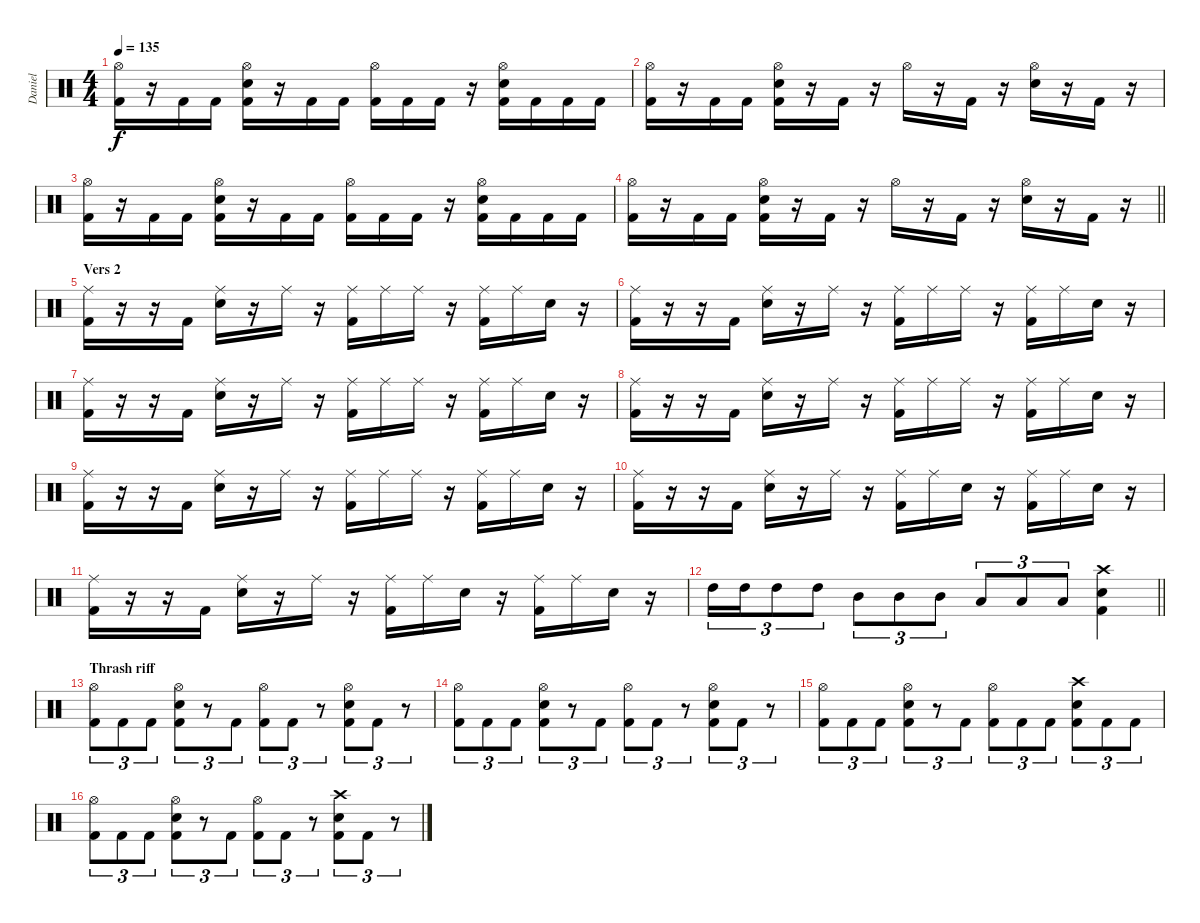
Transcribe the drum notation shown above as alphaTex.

\track ("Daniel" "Daniel") {instrument percussion}
\staff {score}
\articulation defaults
\ts (4 4)
\tempo 135
\clef neutral
\ks c
("Hi-Hat (open)" "Kick (hit) 2").16{dy f} r.16 "Kick (hit) 2".16 "Kick (hit) 2".16 ("Hi-Hat (open)" "Electric Snare (hit)" "Kick (hit) 2").16 r.16 "Kick (hit) 2".16 "Kick (hit) 2".16 ("Hi-Hat (open)" "Kick (hit) 2").16 "Kick (hit) 2".16 "Kick (hit) 2".16 r.16 ("Hi-Hat (open)" "Electric Snare (hit)" "Kick (hit) 2").16 "Kick (hit) 2".16 "Kick (hit) 2".16 "Kick (hit) 2".16 |
("Hi-Hat (open)" "Kick (hit) 2").16 r.16 "Kick (hit) 2".16 "Kick (hit) 2".16 ("Hi-Hat (open)" "Electric Snare (hit)" "Kick (hit) 2").16 r.16 "Kick (hit) 2".16 r.16 "Hi-Hat (open)".16 r.16 "Kick (hit) 2".16 r.16 ("Hi-Hat (open)" "Electric Snare (hit)").16 r.16 "Kick (hit) 2".16 r.16 |
("Hi-Hat (open)" "Kick (hit) 2").16 r.16 "Kick (hit) 2".16 "Kick (hit) 2".16 ("Hi-Hat (open)" "Electric Snare (hit)" "Kick (hit) 2").16 r.16 "Kick (hit) 2".16 "Kick (hit) 2".16 ("Hi-Hat (open)" "Kick (hit) 2").16 "Kick (hit) 2".16 "Kick (hit) 2".16 r.16 ("Hi-Hat (open)" "Electric Snare (hit)" "Kick (hit) 2").16 "Kick (hit) 2".16 "Kick (hit) 2".16 "Kick (hit) 2".16 |
\barLineRight lightlight
("Hi-Hat (open)" "Kick (hit) 2").16 r.16 "Kick (hit) 2".16 "Kick (hit) 2".16 ("Hi-Hat (open)" "Electric Snare (hit)" "Kick (hit) 2").16 r.16 "Kick (hit) 2".16 r.16 "Hi-Hat (open)".16 r.16 "Kick (hit) 2".16 r.16 ("Hi-Hat (open)" "Electric Snare (hit)").16 r.16 "Kick (hit) 2".16 r.16 |
\section ("" "Vers 2")
("Ride (middle)" "Kick (hit) 2").16 r.16 r.16 "Kick (hit) 2".16 ("Ride (middle)" "Electric Snare (hit)").16 r.16 "Ride (middle)".16 r.16 ("Ride (middle)" "Kick (hit) 2").16 "Ride (middle)".16 "Ride (middle)".16 r.16 ("Ride (middle)" "Kick (hit) 2").16 "Ride (middle)".16 "Electric Snare (hit)".16 r.16 |
("Ride (middle)" "Kick (hit) 2").16 r.16 r.16 "Kick (hit) 2".16 ("Ride (middle)" "Electric Snare (hit)").16 r.16 "Ride (middle)".16 r.16 ("Ride (middle)" "Kick (hit) 2").16 "Ride (middle)".16 "Ride (middle)".16 r.16 ("Ride (middle)" "Kick (hit) 2").16 "Ride (middle)".16 "Electric Snare (hit)".16 r.16 |
("Ride (middle)" "Kick (hit) 2").16 r.16 r.16 "Kick (hit) 2".16 ("Ride (middle)" "Electric Snare (hit)").16 r.16 "Ride (middle)".16 r.16 ("Ride (middle)" "Kick (hit) 2").16 "Ride (middle)".16 "Ride (middle)".16 r.16 ("Ride (middle)" "Kick (hit) 2").16 "Ride (middle)".16 "Electric Snare (hit)".16 r.16 |
("Ride (middle)" "Kick (hit) 2").16 r.16 r.16 "Kick (hit) 2".16 ("Ride (middle)" "Electric Snare (hit)").16 r.16 "Ride (middle)".16 r.16 ("Ride (middle)" "Kick (hit) 2").16 "Ride (middle)".16 "Ride (middle)".16 r.16 ("Ride (middle)" "Kick (hit) 2").16 "Ride (middle)".16 "Electric Snare (hit)".16 r.16 |
("Ride (middle)" "Kick (hit) 2").16 r.16 r.16 "Kick (hit) 2".16 ("Ride (middle)" "Electric Snare (hit)").16 r.16 "Ride (middle)".16 r.16 ("Ride (middle)" "Kick (hit) 2").16 "Ride (middle)".16 "Ride (middle)".16 r.16 ("Ride (middle)" "Kick (hit) 2").16 "Ride (middle)".16 "Electric Snare (hit)".16 r.16 |
("Ride (middle)" "Kick (hit) 2").16 r.16 r.16 "Kick (hit) 2".16 ("Ride (middle)" "Electric Snare (hit)").16 r.16 "Ride (middle)".16 r.16 ("Ride (middle)" "Kick (hit) 2").16 "Ride (middle)".16 "Electric Snare (hit)".16 r.16 ("Ride (middle)" "Kick (hit) 2").16 "Ride (middle)".16 "Electric Snare (hit)".16 r.16 |
("Ride (middle)" "Kick (hit) 2").16 r.16 r.16 "Kick (hit) 2".16 ("Ride (middle)" "Electric Snare (hit)").16 r.16 "Ride (middle)".16 r.16 ("Ride (middle)" "Kick (hit) 2").16 "Ride (middle)".16 "Electric Snare (hit)".16 r.16 ("Ride (middle)" "Kick (hit) 2").16 "Ride (middle)".16 "Electric Snare (hit)".16 r.16 |
\barLineRight lightlight "High Tom (hit)".16{tu (3 2)} "High Tom (hit)".16{tu (3 2)} "High Tom (hit)".8{tu (3 2)} "High Tom (hit)".8{tu (3 2)} "Mid Tom (hit)".8{tu (3 2)} "Mid Tom (hit)".8{tu (3 2)} "Mid Tom (hit)".8{tu (3 2)} "Low Tom (hit)".8{tu (3 2)} "Low Tom (hit)".8{tu (3 2)} "Low Tom (hit)".8{tu (3 2)}
("Crash high (hit)" "Electric Snare (hit)" "Kick (hit) 2").4 |
\section ("" "Thrash riff")
("Hi-Hat (open)" "Kick (hit) 2").8{tu (3 2)} "Kick (hit) 2".8{tu (3 2)} "Kick (hit) 2".8{tu (3 2)} ("Hi-Hat (open)" "Electric Snare (hit)" "Kick (hit) 2").8{tu (3 2)} r.8{tu (3 2)} "Kick (hit) 2".8{tu (3 2)} ("Hi-Hat (open)" "Kick (hit) 2").8{tu (3 2)} "Kick (hit) 2".8{tu (3 2)} r.8{tu (3 2)} ("Hi-Hat (open)" "Electric Snare (hit)" "Kick (hit) 2").8{tu (3 2)} "Kick (hit) 2".8{tu (3 2)} r.8{tu (3 2)} |
("Hi-Hat (open)" "Kick (hit) 2").8{tu (3 2)} "Kick (hit) 2".8{tu (3 2)} "Kick (hit) 2".8{tu (3 2)} ("Hi-Hat (open)" "Electric Snare (hit)" "Kick (hit) 2").8{tu (3 2)} r.8{tu (3 2)} "Kick (hit) 2".8{tu (3 2)} ("Hi-Hat (open)" "Kick (hit) 2").8{tu (3 2)} "Kick (hit) 2".8{tu (3 2)} r.8{tu (3 2)} ("Hi-Hat (open)" "Electric Snare (hit)" "Kick (hit) 2").8{tu (3 2)} "Kick (hit) 2".8{tu (3 2)} r.8{tu (3 2)} |
("Hi-Hat (open)" "Kick (hit) 2").8{tu (3 2)} "Kick (hit) 2".8{tu (3 2)} "Kick (hit) 2".8{tu (3 2)} ("Hi-Hat (open)" "Electric Snare (hit)" "Kick (hit) 2").8{tu (3 2)} r.8{tu (3 2)} "Kick (hit) 2".8{tu (3 2)} ("Hi-Hat (open)" "Kick (hit) 2").8{tu (3 2)} "Kick (hit) 2".8{tu (3 2)} "Kick (hit) 2".8{tu (3 2)} ("Crash high (hit)" "Electric Snare (hit)" "Kick (hit) 2").8{tu (3 2)} "Kick (hit) 2".8{tu (3 2)} "Kick (hit) 2".8{tu (3 2)} |
("Hi-Hat (open)" "Kick (hit) 2").8{tu (3 2)} "Kick (hit) 2".8{tu (3 2)} "Kick (hit) 2".8{tu (3 2)} ("Hi-Hat (open)" "Electric Snare (hit)" "Kick (hit) 2").8{tu (3 2)} r.8{tu (3 2)} "Kick (hit) 2".8{tu (3 2)} ("Hi-Hat (open)" "Kick (hit) 2").8{tu (3 2)} "Kick (hit) 2".8{tu (3 2)} r.8{tu (3 2)} ("Crash high (hit)" "Electric Snare (hit)" "Kick (hit) 2").8{tu (3 2)} "Kick (hit) 2".8{tu (3 2)} r.8{tu (3 2)}
